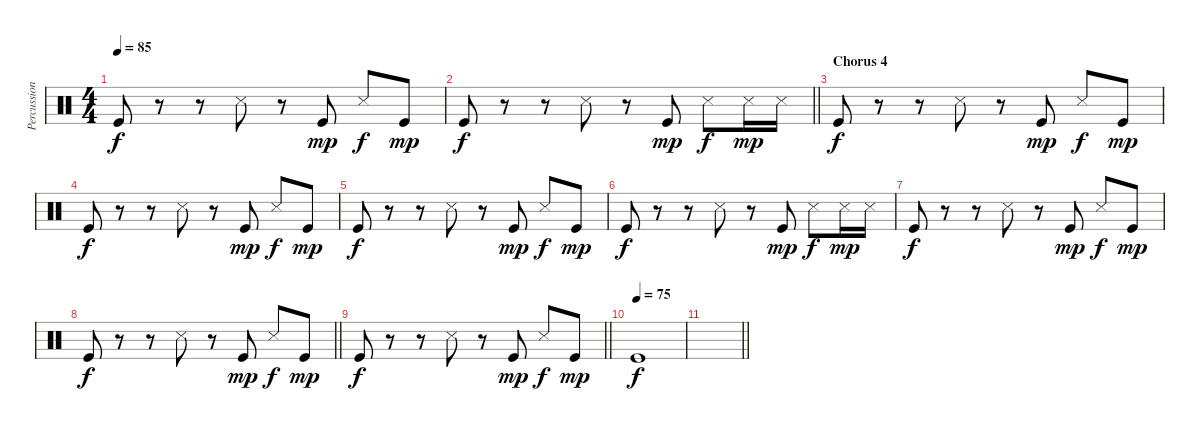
\track ("Percussion" "Percussion") {instrument percussion}
\staff {score}
\articulation defaults
\ts (4 4)
\tempo 85
\clef neutral
\ks c "Kick (hit)".8{dy f}
r.8 r.8 "Snare (side stick) 3".8 r.8 "Kick (hit)".8{dy mp} "Snare (side stick) 3".8{dy f} "Kick (hit)".8{dy mp} |
\barLineRight lightlight "Kick (hit)".8{dy f}
r.8 r.8 "Snare (side stick) 3".8 r.8 "Kick (hit)".8{dy mp} "Snare (side stick) 3".8{dy f} "Snare (side stick) 3".16{dy mp} "Snare (side stick) 3".16 |
\section ("" "Chorus 4")
"Kick (hit)".8{dy f} r.8 r.8 "Snare (side stick) 3".8 r.8 "Kick (hit)".8{dy mp} "Snare (side stick) 3".8{dy f} "Kick (hit)".8{dy mp} |
"Kick (hit)".8{dy f} r.8 r.8 "Snare (side stick) 3".8 r.8 "Kick (hit)".8{dy mp} "Snare (side stick) 3".8{dy f} "Kick (hit)".8{dy mp} |
"Kick (hit)".8{dy f} r.8 r.8 "Snare (side stick) 3".8 r.8 "Kick (hit)".8{dy mp} "Snare (side stick) 3".8{dy f} "Kick (hit)".8{dy mp} |
"Kick (hit)".8{dy f} r.8 r.8 "Snare (side stick) 3".8 r.8 "Kick (hit)".8{dy mp} "Snare (side stick) 3".8{dy f} "Snare (side stick) 3".16{dy mp} "Snare (side stick) 3".16 |
"Kick (hit)".8{dy f} r.8 r.8 "Snare (side stick) 3".8 r.8 "Kick (hit)".8{dy mp} "Snare (side stick) 3".8{dy f} "Kick (hit)".8{dy mp} |
\barLineRight lightlight "Kick (hit)".8{dy f}
r.8 r.8 "Snare (side stick) 3".8 r.8 "Kick (hit)".8{dy mp} "Snare (side stick) 3".8{dy f} "Kick (hit)".8{dy mp} |
\barLineRight lightlight "Kick (hit)".8{dy f}
r.8 r.8 "Snare (side stick) 3".8 r.8 "Kick (hit)".8{dy mp} "Snare (side stick) 3".8{dy f} "Kick (hit)".8{dy mp} |
\tempo (75)
"Kick (hit)".1{dy f} |
\barLineRight lightlight
